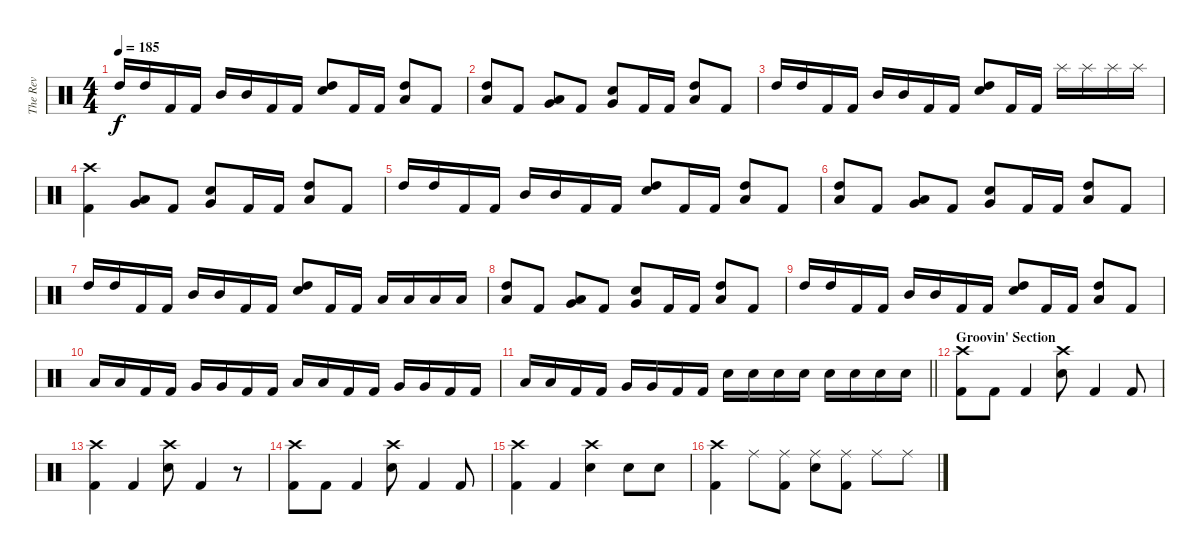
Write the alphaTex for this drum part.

\track ("The Rev" "The Rev") {instrument percussion}
\staff {score}
\articulation defaults
\ts (4 4)
\tempo 185
\clef neutral
\ks c "High Tom (hit)".16{dy f} "High Tom (hit)".16 "Kick (hit) 2".16 "Kick (hit) 2".16 "Mid Tom (hit)".16 "Mid Tom (hit)".16 "Kick (hit) 2".16 "Kick (hit) 2".16
("High Tom (hit)" "Electric Snare (hit)").8 "Kick (hit) 2".16 "Kick (hit) 2".16 ("High Tom (hit)" "Low Tom (hit)").8 "Kick (hit) 2".8 |
("High Tom (hit)" "Low Tom (hit)").8 "Kick (hit) 2".8 ("Low Tom (hit)" "Very Low Tom (hit)").8 "Kick (hit) 2".8 ("Very Low Tom (hit)" "Electric Snare (hit)").8 "Kick (hit) 2".16 "Kick (hit) 2".16 ("High Tom (hit)" "Low Tom (hit)").8 "Kick (hit) 2".8 |
"High Tom (hit)".16 "High Tom (hit)".16 "Kick (hit) 2".16 "Kick (hit) 2".16 "Mid Tom (hit)".16 "Mid Tom (hit)".16 "Kick (hit) 2".16 "Kick (hit) 2".16 ("High Tom (hit)" "Electric Snare (hit)").8 "Kick (hit) 2".16 "Kick (hit) 2".16 "Splash (hit)".16 "Splash (hit)".16 "Splash (hit)".16 "Splash (hit)".16 |
("Crash high (hit)" "Kick (hit) 2").4 ("Low Tom (hit)" "Very Low Tom (hit)").8 "Kick (hit) 2".8 ("Very Low Tom (hit)" "Electric Snare (hit)").8 "Kick (hit) 2".16 "Kick (hit) 2".16 ("High Tom (hit)" "Low Tom (hit)").8 "Kick (hit) 2".8 |
"High Tom (hit)".16 "High Tom (hit)".16 "Kick (hit) 2".16 "Kick (hit) 2".16 "Mid Tom (hit)".16 "Mid Tom (hit)".16 "Kick (hit) 2".16 "Kick (hit) 2".16 ("High Tom (hit)" "Electric Snare (hit)").8 "Kick (hit) 2".16 "Kick (hit) 2".16 ("High Tom (hit)" "Low Tom (hit)").8 "Kick (hit) 2".8 |
("High Tom (hit)" "Low Tom (hit)").8 "Kick (hit) 2".8 ("Low Tom (hit)" "Very Low Tom (hit)").8 "Kick (hit) 2".8 ("Very Low Tom (hit)" "Electric Snare (hit)").8 "Kick (hit) 2".16 "Kick (hit) 2".16 ("High Tom (hit)" "Low Tom (hit)").8 "Kick (hit) 2".8 |
"High Tom (hit)".16 "High Tom (hit)".16 "Kick (hit) 2".16 "Kick (hit) 2".16 "Mid Tom (hit)".16 "Mid Tom (hit)".16 "Kick (hit) 2".16 "Kick (hit) 2".16 ("High Tom (hit)" "Electric Snare (hit)").8 "Kick (hit) 2".16 "Kick (hit) 2".16 "Low Tom (hit)".16 "Low Tom (hit)".16 "Low Tom (hit)".16 "Low Tom (hit)".16 |
("High Tom (hit)" "Low Tom (hit)").8 "Kick (hit) 2".8 ("Low Tom (hit)" "Very Low Tom (hit)").8 "Kick (hit) 2".8 ("Very Low Tom (hit)" "Electric Snare (hit)").8 "Kick (hit) 2".16 "Kick (hit) 2".16 ("High Tom (hit)" "Low Tom (hit)").8 "Kick (hit) 2".8 |
"High Tom (hit)".16 "High Tom (hit)".16 "Kick (hit) 2".16 "Kick (hit) 2".16 "Mid Tom (hit)".16 "Mid Tom (hit)".16 "Kick (hit) 2".16 "Kick (hit) 2".16 ("High Tom (hit)" "Electric Snare (hit)").8 "Kick (hit) 2".16 "Kick (hit) 2".16 ("High Tom (hit)" "Low Tom (hit)").8 "Kick (hit) 2".8 |
"Low Tom (hit)".16 "Low Tom (hit)".16 "Kick (hit) 2".16 "Kick (hit) 2".16 "Very Low Tom (hit)".16 "Very Low Tom (hit)".16 "Kick (hit) 2".16 "Kick (hit) 2".16 "Low Tom (hit)".16 "Low Tom (hit)".16 "Kick (hit) 2".16 "Kick (hit) 2".16 "Very Low Tom (hit)".16 "Very Low Tom (hit)".16 "Kick (hit) 2".16 "Kick (hit) 2".16 |
\barLineRight lightlight "Low Tom (hit)".16 "Low Tom (hit)".16 "Kick (hit) 2".16 "Kick (hit) 2".16 "Very Low Tom (hit)".16 "Very Low Tom (hit)".16 "Kick (hit) 2".16 "Kick (hit) 2".16 "Electric Snare (hit)".16 "Electric Snare (hit)".16 "Electric Snare (hit)".16 "Electric Snare (hit)".16 "Electric Snare (hit)".16 "Electric Snare (hit)".16 "Electric Snare (hit)".16 "Electric Snare (hit)".16
|
\section ("" "Groovin' Section")
("Crash high (hit)" "Kick (hit) 2").8 "Kick (hit) 2".8 "Kick (hit) 2".4 ("Crash high (hit)" "Electric Snare (hit)").8 "Kick (hit) 2".4 "Kick (hit) 2".8 |
("Crash high (hit)" "Kick (hit) 2").4 "Kick (hit) 2".4 ("Crash high (hit)" "Electric Snare (hit)").8 "Kick (hit) 2".4 r.8 |
("Crash high (hit)" "Kick (hit) 2").8 "Kick (hit) 2".8 "Kick (hit) 2".4 ("Crash high (hit)" "Electric Snare (hit)").8 "Kick (hit) 2".4 "Kick (hit) 2".8 |
("Crash high (hit)" "Kick (hit) 2").4 "Kick (hit) 2".4 ("Crash high (hit)" "Electric Snare (hit)").4 "Electric Snare (hit)".8 "Electric Snare (hit)".8 |
("Crash high (hit)" "Kick (hit) 2").4 "Ride (middle)".8 ("Ride (middle)" "Kick (hit) 2").8 ("Ride (middle)" "Electric Snare (hit)").8 ("Ride (middle)" "Kick (hit) 2").8 "Ride (middle)".8 "Ride (middle)".8
